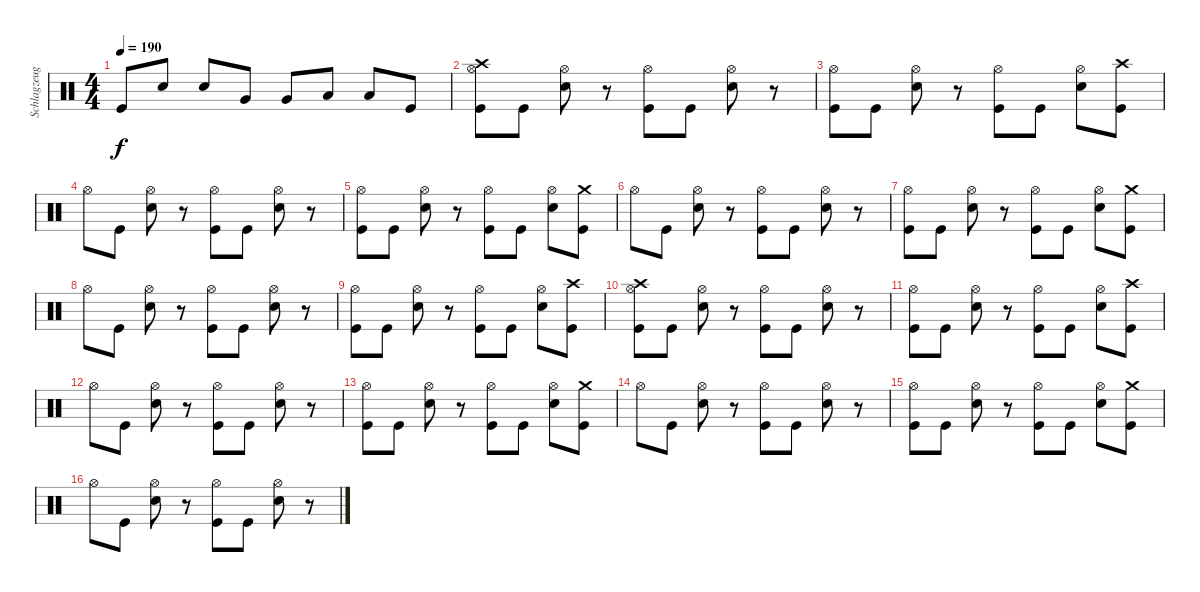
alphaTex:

\track ("Schlagzeug" "Schlagzeug") {instrument percussion}
\staff {score}
\articulation defaults
\ts (4 4)
\tempo 190
\clef neutral
\ks c "Kick (hit)".8{dy f} "Electric Snare (hit)".8 "Electric Snare (hit)".8 "Very Low Tom (hit)".8 "Very Low Tom (hit)".8 "Low Floor Tom (hit)".8 "Low Floor Tom (hit)".8 "Kick (hit)".8
|
("Crash high (hit)" "Kick (hit)" "Hi-Hat (open)").8 "Kick (hit)".8 ("Electric Snare (hit)" "Hi-Hat (open)").8 r.8 ("Kick (hit)" "Hi-Hat (open)").8 "Kick (hit)".8 ("Electric Snare (hit)" "Hi-Hat (open)").8 r.8 |
("Kick (hit)" "Hi-Hat (open)").8 "Kick (hit)".8 ("Electric Snare (hit)" "Hi-Hat (open)").8 r.8 ("Kick (hit)" "Hi-Hat (open)").8 "Kick (hit)".8 ("Electric Snare (hit)" "Hi-Hat (open)").8 ("Kick (hit)" "Crash high (hit)").8 |
"Hi-Hat (open)".8 "Kick (hit)".8 ("Electric Snare (hit)" "Hi-Hat (open)").8 r.8 ("Kick (hit)" "Hi-Hat (open)").8 "Kick (hit)".8 ("Electric Snare (hit)" "Hi-Hat (open)").8 r.8 |
("Kick (hit)" "Hi-Hat (open)").8 "Kick (hit)".8 ("Electric Snare (hit)" "Hi-Hat (open)").8 r.8 ("Kick (hit)" "Hi-Hat (open)").8 "Kick (hit)".8 ("Electric Snare (hit)" "Hi-Hat (open)").8 ("Crash medium (hit)" "Kick (hit)").8 |
"Hi-Hat (open)".8 "Kick (hit)".8 ("Electric Snare (hit)" "Hi-Hat (open)").8 r.8 ("Kick (hit)" "Hi-Hat (open)").8 "Kick (hit)".8 ("Electric Snare (hit)" "Hi-Hat (open)").8 r.8 |
("Kick (hit)" "Hi-Hat (open)").8 "Kick (hit)".8 ("Electric Snare (hit)" "Hi-Hat (open)").8 r.8 ("Kick (hit)" "Hi-Hat (open)").8 "Kick (hit)".8 ("Electric Snare (hit)" "Hi-Hat (open)").8 ("Kick (hit)" "Crash medium (hit)").8 |
"Hi-Hat (open)".8 "Kick (hit)".8 ("Electric Snare (hit)" "Hi-Hat (open)").8 r.8 ("Kick (hit)" "Hi-Hat (open)").8 "Kick (hit)".8 ("Electric Snare (hit)" "Hi-Hat (open)").8 r.8 |
("Kick (hit)" "Hi-Hat (open)").8 "Kick (hit)".8 ("Electric Snare (hit)" "Hi-Hat (open)").8 r.8 ("Kick (hit)" "Hi-Hat (open)").8 "Kick (hit)".8 ("Electric Snare (hit)" "Hi-Hat (open)").8 ("Kick (hit)" "Crash high (hit)").8 |
("Crash high (hit)" "Kick (hit)" "Hi-Hat (open)").8 "Kick (hit)".8 ("Electric Snare (hit)" "Hi-Hat (open)").8 r.8 ("Kick (hit)" "Hi-Hat (open)").8 "Kick (hit)".8 ("Electric Snare (hit)" "Hi-Hat (open)").8 r.8 |
("Kick (hit)" "Hi-Hat (open)").8 "Kick (hit)".8 ("Electric Snare (hit)" "Hi-Hat (open)").8 r.8 ("Kick (hit)" "Hi-Hat (open)").8 "Kick (hit)".8 ("Electric Snare (hit)" "Hi-Hat (open)").8 ("Kick (hit)" "Crash high (hit)").8 |
"Hi-Hat (open)".8 "Kick (hit)".8 ("Electric Snare (hit)" "Hi-Hat (open)").8 r.8 ("Kick (hit)" "Hi-Hat (open)").8 "Kick (hit)".8 ("Electric Snare (hit)" "Hi-Hat (open)").8 r.8 |
("Kick (hit)" "Hi-Hat (open)").8 "Kick (hit)".8 ("Electric Snare (hit)" "Hi-Hat (open)").8 r.8 ("Kick (hit)" "Hi-Hat (open)").8 "Kick (hit)".8 ("Electric Snare (hit)" "Hi-Hat (open)").8 ("Crash medium (hit)" "Kick (hit)").8 |
"Hi-Hat (open)".8 "Kick (hit)".8 ("Electric Snare (hit)" "Hi-Hat (open)").8 r.8 ("Kick (hit)" "Hi-Hat (open)").8 "Kick (hit)".8 ("Electric Snare (hit)" "Hi-Hat (open)").8 r.8 |
("Kick (hit)" "Hi-Hat (open)").8 "Kick (hit)".8 ("Electric Snare (hit)" "Hi-Hat (open)").8 r.8 ("Kick (hit)" "Hi-Hat (open)").8 "Kick (hit)".8 ("Electric Snare (hit)" "Hi-Hat (open)").8 ("Kick (hit)" "Crash medium (hit)").8 |
"Hi-Hat (open)".8 "Kick (hit)".8 ("Electric Snare (hit)" "Hi-Hat (open)").8 r.8 ("Kick (hit)" "Hi-Hat (open)").8 "Kick (hit)".8 ("Electric Snare (hit)" "Hi-Hat (open)").8 r.8
